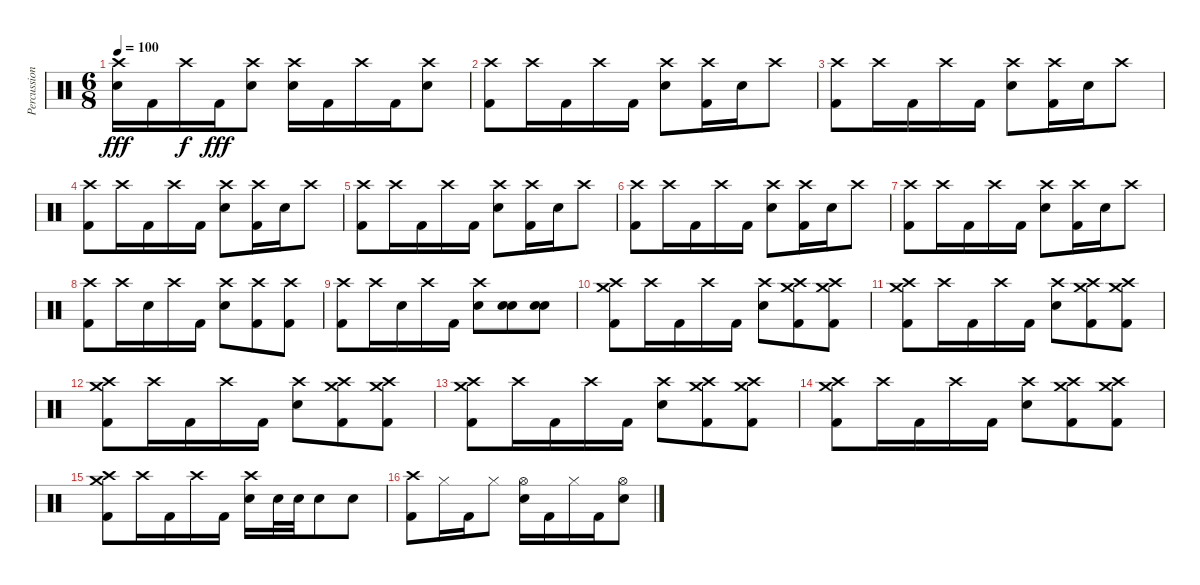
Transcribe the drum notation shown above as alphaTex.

\track ("Percussion" "Percussion") {instrument percussion}
\staff {score}
\articulation defaults
\ts (6 8)
\tempo 100
\clef neutral
\ks c
("Crash high (hit)" "Electric Snare (hit)").16{dy fff} "Kick (hit) 2".16 "Crash high (hit)".16{dy f} "Kick (hit) 2".16{dy fff} ("Crash high (hit)" "Electric Snare (hit)").8 ("Crash high (hit)" "Electric Snare (hit)").16 "Kick (hit) 2".16 "Crash high (hit)".16 "Kick (hit) 2".16 ("Crash high (hit)" "Electric Snare (hit)").8 |
("Crash high (hit)" "Kick (hit) 2").8 "Crash high (hit)".16 "Kick (hit) 2".16 "Crash high (hit)".16 "Kick (hit) 2".16 ("Crash high (hit)" "Electric Snare (hit)").8 ("Crash high (hit)" "Kick (hit) 2").16 "Electric Snare (hit)".16 "Crash high (hit)".8 |
("Crash high (hit)" "Kick (hit) 2").8 "Crash high (hit)".16 "Kick (hit) 2".16 "Crash high (hit)".16 "Kick (hit) 2".16 ("Crash high (hit)" "Electric Snare (hit)").8 ("Crash high (hit)" "Kick (hit) 2").16 "Electric Snare (hit)".16 "Crash high (hit)".8 |
("Crash high (hit)" "Kick (hit) 2").8 "Crash high (hit)".16 "Kick (hit) 2".16 "Crash high (hit)".16 "Kick (hit) 2".16 ("Crash high (hit)" "Electric Snare (hit)").8 ("Crash high (hit)" "Kick (hit) 2").16 "Electric Snare (hit)".16 "Crash high (hit)".8 |
("Crash high (hit)" "Kick (hit) 2").8 "Crash high (hit)".16 "Kick (hit) 2".16 "Crash high (hit)".16 "Kick (hit) 2".16 ("Crash high (hit)" "Electric Snare (hit)").8 ("Crash high (hit)" "Kick (hit) 2").16 "Electric Snare (hit)".16 "Crash high (hit)".8 |
("Crash high (hit)" "Kick (hit) 2").8 "Crash high (hit)".16 "Kick (hit) 2".16 "Crash high (hit)".16 "Kick (hit) 2".16 ("Crash high (hit)" "Electric Snare (hit)").8 ("Crash high (hit)" "Kick (hit) 2").16 "Electric Snare (hit)".16 "Crash high (hit)".8 |
("Crash high (hit)" "Kick (hit) 2").8 "Crash high (hit)".16 "Kick (hit) 2".16 "Crash high (hit)".16 "Kick (hit) 2".16 ("Crash high (hit)" "Electric Snare (hit)").8 ("Crash high (hit)" "Kick (hit) 2").16 "Electric Snare (hit)".16 "Crash high (hit)".8 |
("Crash high (hit)" "Kick (hit) 2").8 "Crash high (hit)".16 "Electric Snare (hit)".16 "Crash high (hit)".16 "Kick (hit) 2".16 ("Crash high (hit)" "Electric Snare (hit)").8 ("Crash high (hit)" "Kick (hit) 2").8 ("Crash high (hit)" "Kick (hit) 2").8 |
("Crash high (hit)" "Kick (hit) 2").8 "Crash high (hit)".16 "Electric Snare (hit)".16 "Crash high (hit)".16 "Kick (hit) 2".16 ("Crash high (hit)" "Electric Snare (hit)").8 ("Electric Snare (hit)" "Electric Snare (hit)").8 ("Electric Snare (hit)" "Electric Snare (hit)").8 |
("Crash high (hit)" "Crash medium (hit)" "Kick (hit) 2").8 "Crash high (hit)".16 "Kick (hit) 2".16 "Crash high (hit)".16 "Kick (hit) 2".16 ("Crash high (hit)" "Electric Snare (hit)").8 ("Crash high (hit)" "Crash medium (hit)" "Kick (hit) 2").8 ("Crash high (hit)" "Crash medium (hit)" "Kick (hit) 2").8 |
("Crash high (hit)" "Crash medium (hit)" "Kick (hit) 2").8 "Crash high (hit)".16 "Kick (hit) 2".16 "Crash high (hit)".16 "Kick (hit) 2".16 ("Crash high (hit)" "Electric Snare (hit)").8 ("Crash high (hit)" "Crash medium (hit)" "Kick (hit) 2").8 ("Crash high (hit)" "Crash medium (hit)" "Kick (hit) 2").8 |
("Crash high (hit)" "Crash medium (hit)" "Kick (hit) 2").8 "Crash high (hit)".16 "Kick (hit) 2".16 "Crash high (hit)".16 "Kick (hit) 2".16 ("Crash high (hit)" "Electric Snare (hit)").8 ("Crash high (hit)" "Crash medium (hit)" "Kick (hit) 2").8 ("Crash high (hit)" "Crash medium (hit)" "Kick (hit) 2").8 |
("Crash high (hit)" "Crash medium (hit)" "Kick (hit) 2").8 "Crash high (hit)".16 "Kick (hit) 2".16 "Crash high (hit)".16 "Kick (hit) 2".16 ("Crash high (hit)" "Electric Snare (hit)").8 ("Crash high (hit)" "Crash medium (hit)" "Kick (hit) 2").8 ("Crash high (hit)" "Crash medium (hit)" "Kick (hit) 2").8 |
("Crash high (hit)" "Crash medium (hit)" "Kick (hit) 2").8 "Crash high (hit)".16 "Kick (hit) 2".16 "Crash high (hit)".16 "Kick (hit) 2".16 ("Crash high (hit)" "Electric Snare (hit)").8 ("Crash high (hit)" "Crash medium (hit)" "Kick (hit) 2").8 ("Crash high (hit)" "Crash medium (hit)" "Kick (hit) 2").8 |
("Crash high (hit)" "Crash medium (hit)" "Kick (hit) 2").8 "Crash high (hit)".16 "Kick (hit) 2".16 "Crash high (hit)".16 "Kick (hit) 2".16 ("Crash high (hit)" "Electric Snare (hit)").16 "Electric Snare (hit)".32 "Electric Snare (hit)".32 "Electric Snare (hit)".8 "Electric Snare (hit)".8 |
("Crash high (hit)" "Kick (hit) 2").8 "Hi-Hat (closed)".16 "Kick (hit) 2".16 "Hi-Hat (closed)".8 ("Hi-Hat (open)" "Electric Snare (hit)").16 "Kick (hit) 2".16 "Hi-Hat (closed)".16 "Kick (hit) 2".16 ("Hi-Hat (open)" "Electric Snare (hit)").8
